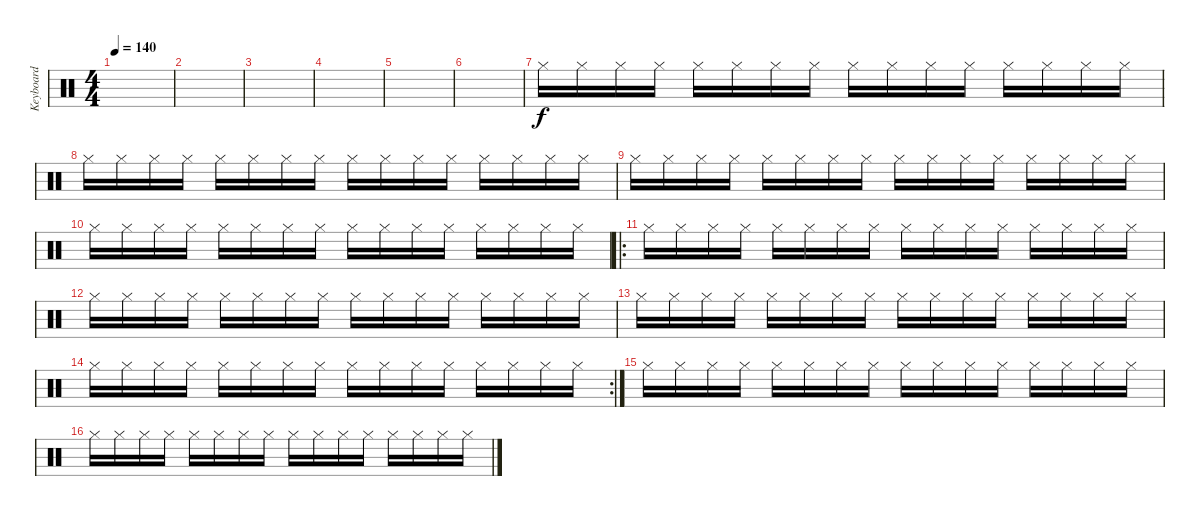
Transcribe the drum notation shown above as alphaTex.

\track ("Keyboard" "Keyboard") {instrument percussion}
\staff {score}
\articulation defaults
\ts (4 4)
\tempo 140
\clef neutral
\ks c
|
|
|
|
|
|
"Hi-Hat (closed)".16 "Hi-Hat (closed)".16 "Hi-Hat (closed)".16 "Hi-Hat (closed)".16 "Hi-Hat (closed)".16 "Hi-Hat (closed)".16 "Hi-Hat (closed)".16 "Hi-Hat (closed)".16 "Hi-Hat (closed)".16 "Hi-Hat (closed)".16 "Hi-Hat (closed)".16 "Hi-Hat (closed)".16 "Hi-Hat (closed)".16 "Hi-Hat (closed)".16 "Hi-Hat (closed)".16 "Hi-Hat (closed)".16 |
"Hi-Hat (closed)".16 "Hi-Hat (closed)".16 "Hi-Hat (closed)".16 "Hi-Hat (closed)".16 "Hi-Hat (closed)".16 "Hi-Hat (closed)".16 "Hi-Hat (closed)".16 "Hi-Hat (closed)".16 "Hi-Hat (closed)".16 "Hi-Hat (closed)".16 "Hi-Hat (closed)".16 "Hi-Hat (closed)".16 "Hi-Hat (closed)".16 "Hi-Hat (closed)".16 "Hi-Hat (closed)".16 "Hi-Hat (closed)".16 |
"Hi-Hat (closed)".16 "Hi-Hat (closed)".16 "Hi-Hat (closed)".16 "Hi-Hat (closed)".16 "Hi-Hat (closed)".16 "Hi-Hat (closed)".16 "Hi-Hat (closed)".16 "Hi-Hat (closed)".16 "Hi-Hat (closed)".16 "Hi-Hat (closed)".16 "Hi-Hat (closed)".16 "Hi-Hat (closed)".16 "Hi-Hat (closed)".16 "Hi-Hat (closed)".16 "Hi-Hat (closed)".16 "Hi-Hat (closed)".16 |
"Hi-Hat (closed)".16 "Hi-Hat (closed)".16 "Hi-Hat (closed)".16 "Hi-Hat (closed)".16 "Hi-Hat (closed)".16 "Hi-Hat (closed)".16 "Hi-Hat (closed)".16 "Hi-Hat (closed)".16 "Hi-Hat (closed)".16 "Hi-Hat (closed)".16 "Hi-Hat (closed)".16 "Hi-Hat (closed)".16 "Hi-Hat (closed)".16 "Hi-Hat (closed)".16 "Hi-Hat (closed)".16 "Hi-Hat (closed)".16 |
\ro "Hi-Hat (closed)".16 "Hi-Hat (closed)".16 "Hi-Hat (closed)".16 "Hi-Hat (closed)".16 "Hi-Hat (closed)".16 "Hi-Hat (closed)".16 "Hi-Hat (closed)".16 "Hi-Hat (closed)".16 "Hi-Hat (closed)".16 "Hi-Hat (closed)".16 "Hi-Hat (closed)".16 "Hi-Hat (closed)".16 "Hi-Hat (closed)".16 "Hi-Hat (closed)".16 "Hi-Hat (closed)".16 "Hi-Hat (closed)".16
|
"Hi-Hat (closed)".16 "Hi-Hat (closed)".16 "Hi-Hat (closed)".16 "Hi-Hat (closed)".16 "Hi-Hat (closed)".16 "Hi-Hat (closed)".16 "Hi-Hat (closed)".16 "Hi-Hat (closed)".16 "Hi-Hat (closed)".16 "Hi-Hat (closed)".16 "Hi-Hat (closed)".16 "Hi-Hat (closed)".16 "Hi-Hat (closed)".16 "Hi-Hat (closed)".16 "Hi-Hat (closed)".16 "Hi-Hat (closed)".16 |
"Hi-Hat (closed)".16 "Hi-Hat (closed)".16 "Hi-Hat (closed)".16 "Hi-Hat (closed)".16 "Hi-Hat (closed)".16 "Hi-Hat (closed)".16 "Hi-Hat (closed)".16 "Hi-Hat (closed)".16 "Hi-Hat (closed)".16 "Hi-Hat (closed)".16 "Hi-Hat (closed)".16 "Hi-Hat (closed)".16 "Hi-Hat (closed)".16 "Hi-Hat (closed)".16 "Hi-Hat (closed)".16 "Hi-Hat (closed)".16 |
\rc 2 "Hi-Hat (closed)".16 "Hi-Hat (closed)".16 "Hi-Hat (closed)".16 "Hi-Hat (closed)".16 "Hi-Hat (closed)".16 "Hi-Hat (closed)".16 "Hi-Hat (closed)".16 "Hi-Hat (closed)".16 "Hi-Hat (closed)".16 "Hi-Hat (closed)".16 "Hi-Hat (closed)".16 "Hi-Hat (closed)".16 "Hi-Hat (closed)".16 "Hi-Hat (closed)".16 "Hi-Hat (closed)".16 "Hi-Hat (closed)".16
|
"Hi-Hat (closed)".16 "Hi-Hat (closed)".16 "Hi-Hat (closed)".16 "Hi-Hat (closed)".16 "Hi-Hat (closed)".16 "Hi-Hat (closed)".16 "Hi-Hat (closed)".16 "Hi-Hat (closed)".16 "Hi-Hat (closed)".16 "Hi-Hat (closed)".16 "Hi-Hat (closed)".16 "Hi-Hat (closed)".16 "Hi-Hat (closed)".16 "Hi-Hat (closed)".16 "Hi-Hat (closed)".16 "Hi-Hat (closed)".16 |
"Hi-Hat (closed)".16 "Hi-Hat (closed)".16 "Hi-Hat (closed)".16 "Hi-Hat (closed)".16 "Hi-Hat (closed)".16 "Hi-Hat (closed)".16 "Hi-Hat (closed)".16 "Hi-Hat (closed)".16 "Hi-Hat (closed)".16 "Hi-Hat (closed)".16 "Hi-Hat (closed)".16 "Hi-Hat (closed)".16 "Hi-Hat (closed)".16 "Hi-Hat (closed)".16 "Hi-Hat (closed)".16 "Hi-Hat (closed)".16
